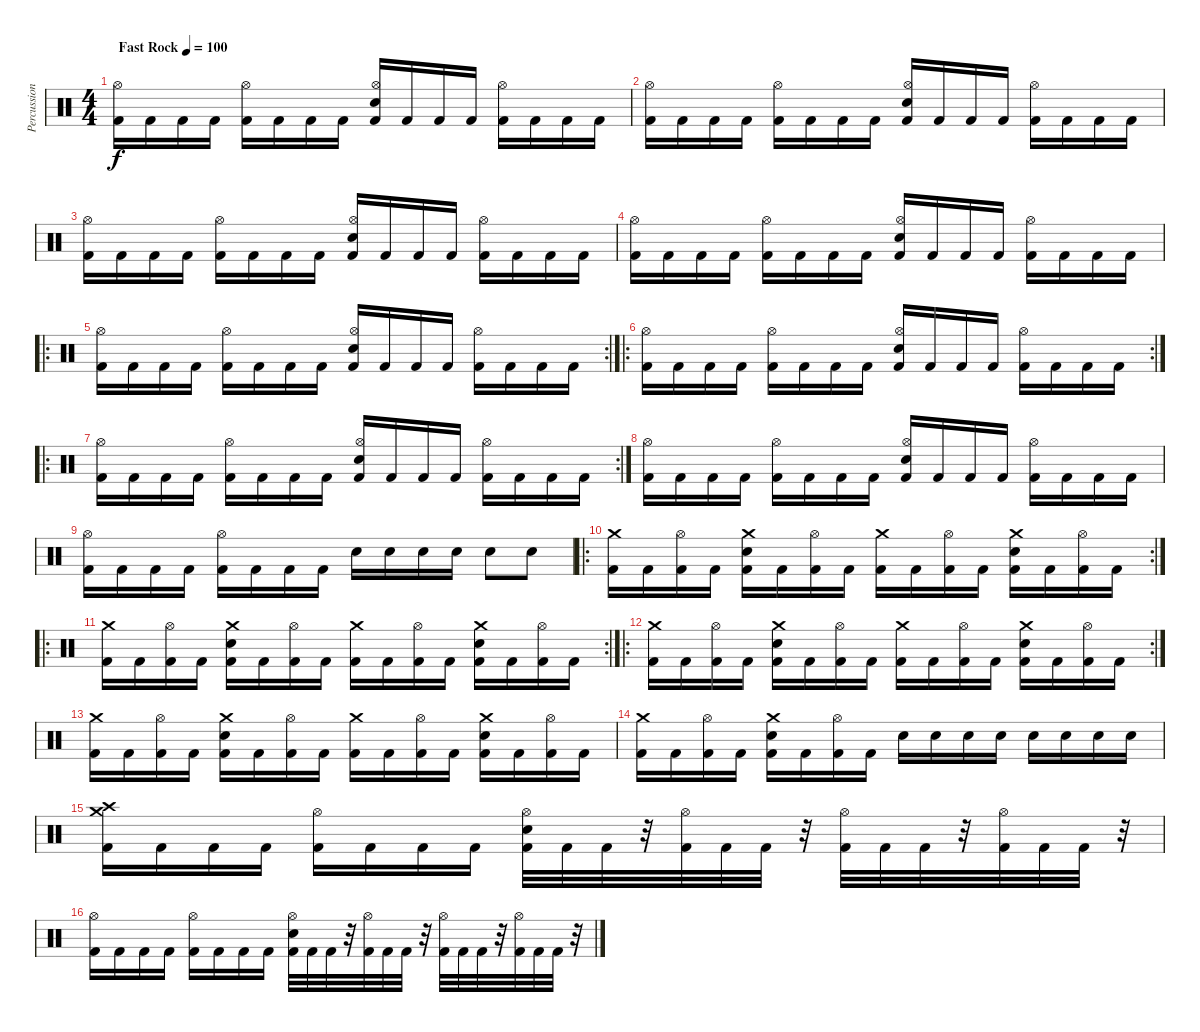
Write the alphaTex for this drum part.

\track ("Percussion" "Percussion") {solo instrument percussion}
\staff {score}
\articulation defaults
\ts (4 4)
\tempo (100 "Fast Rock")
\clef neutral
\ks c
("Kick (hit) 2" "Hi-Hat (open)").16{dy f} "Kick (hit) 2".16 "Kick (hit) 2".16 "Kick (hit) 2".16 ("Kick (hit) 2" "Hi-Hat (open)").16 "Kick (hit) 2".16 "Kick (hit) 2".16 "Kick (hit) 2".16 ("Kick (hit) 2" "Hi-Hat (open)" "Snare (hit) 2").16 "Kick (hit) 2".16 "Kick (hit) 2".16 "Kick (hit) 2".16 ("Kick (hit) 2" "Hi-Hat (open)").16 "Kick (hit) 2".16 "Kick (hit) 2".16 "Kick (hit) 2".16 |
("Kick (hit) 2" "Hi-Hat (open)").16 "Kick (hit) 2".16 "Kick (hit) 2".16 "Kick (hit) 2".16 ("Kick (hit) 2" "Hi-Hat (open)").16 "Kick (hit) 2".16 "Kick (hit) 2".16 "Kick (hit) 2".16 ("Kick (hit) 2" "Hi-Hat (open)" "Snare (hit) 2").16 "Kick (hit) 2".16 "Kick (hit) 2".16 "Kick (hit) 2".16 ("Kick (hit) 2" "Hi-Hat (open)").16 "Kick (hit) 2".16 "Kick (hit) 2".16 "Kick (hit) 2".16 |
("Kick (hit) 2" "Hi-Hat (open)").16 "Kick (hit) 2".16 "Kick (hit) 2".16 "Kick (hit) 2".16 ("Kick (hit) 2" "Hi-Hat (open)").16 "Kick (hit) 2".16 "Kick (hit) 2".16 "Kick (hit) 2".16 ("Kick (hit) 2" "Hi-Hat (open)" "Snare (hit) 2").16 "Kick (hit) 2".16 "Kick (hit) 2".16 "Kick (hit) 2".16 ("Kick (hit) 2" "Hi-Hat (open)").16 "Kick (hit) 2".16 "Kick (hit) 2".16 "Kick (hit) 2".16 |
("Kick (hit) 2" "Hi-Hat (open)").16 "Kick (hit) 2".16 "Kick (hit) 2".16 "Kick (hit) 2".16 ("Kick (hit) 2" "Hi-Hat (open)").16 "Kick (hit) 2".16 "Kick (hit) 2".16 "Kick (hit) 2".16 ("Kick (hit) 2" "Hi-Hat (open)" "Snare (hit) 2").16 "Kick (hit) 2".16 "Kick (hit) 2".16 "Kick (hit) 2".16 ("Kick (hit) 2" "Hi-Hat (open)").16 "Kick (hit) 2".16 "Kick (hit) 2".16 "Kick (hit) 2".16 |
\ro
\rc 2
("Kick (hit) 2" "Hi-Hat (open)").16 "Kick (hit) 2".16 "Kick (hit) 2".16 "Kick (hit) 2".16 ("Kick (hit) 2" "Hi-Hat (open)").16 "Kick (hit) 2".16 "Kick (hit) 2".16 "Kick (hit) 2".16 ("Kick (hit) 2" "Hi-Hat (open)" "Snare (hit) 2").16 "Kick (hit) 2".16 "Kick (hit) 2".16 "Kick (hit) 2".16 ("Kick (hit) 2" "Hi-Hat (open)").16 "Kick (hit) 2".16 "Kick (hit) 2".16 "Kick (hit) 2".16 |
\ro
\rc 2
("Kick (hit) 2" "Hi-Hat (open)").16 "Kick (hit) 2".16 "Kick (hit) 2".16 "Kick (hit) 2".16 ("Kick (hit) 2" "Hi-Hat (open)").16 "Kick (hit) 2".16 "Kick (hit) 2".16 "Kick (hit) 2".16 ("Kick (hit) 2" "Hi-Hat (open)" "Snare (hit) 2").16 "Kick (hit) 2".16 "Kick (hit) 2".16 "Kick (hit) 2".16 ("Kick (hit) 2" "Hi-Hat (open)").16 "Kick (hit) 2".16 "Kick (hit) 2".16 "Kick (hit) 2".16 |
\ro
\rc 2
("Kick (hit) 2" "Hi-Hat (open)").16 "Kick (hit) 2".16 "Kick (hit) 2".16 "Kick (hit) 2".16 ("Kick (hit) 2" "Hi-Hat (open)").16 "Kick (hit) 2".16 "Kick (hit) 2".16 "Kick (hit) 2".16 ("Kick (hit) 2" "Hi-Hat (open)" "Snare (hit) 2").16 "Kick (hit) 2".16 "Kick (hit) 2".16 "Kick (hit) 2".16 ("Kick (hit) 2" "Hi-Hat (open)").16 "Kick (hit) 2".16 "Kick (hit) 2".16 "Kick (hit) 2".16 |
("Kick (hit) 2" "Hi-Hat (open)").16 "Kick (hit) 2".16 "Kick (hit) 2".16 "Kick (hit) 2".16 ("Kick (hit) 2" "Hi-Hat (open)").16 "Kick (hit) 2".16 "Kick (hit) 2".16 "Kick (hit) 2".16 ("Kick (hit) 2" "Hi-Hat (open)" "Snare (hit) 2").16 "Kick (hit) 2".16 "Kick (hit) 2".16 "Kick (hit) 2".16 ("Kick (hit) 2" "Hi-Hat (open)").16 "Kick (hit) 2".16 "Kick (hit) 2".16 "Kick (hit) 2".16 |
("Kick (hit) 2" "Hi-Hat (open)").16 "Kick (hit) 2".16 "Kick (hit) 2".16 "Kick (hit) 2".16 ("Kick (hit) 2" "Hi-Hat (open)").16 "Kick (hit) 2".16 "Kick (hit) 2".16 "Kick (hit) 2".16 "Snare (hit) 2".16 "Snare (hit) 2".16 "Snare (hit) 2".16 "Snare (hit) 2".16 "Snare (hit) 2".8 "Snare (hit) 2".8 |
\ro
\rc 2
("Kick (hit) 2" "Crash medium (hit)").16 "Kick (hit) 2".16 ("Kick (hit) 2" "Hi-Hat (open)").16 "Kick (hit) 2".16 ("Kick (hit) 2" "Crash medium (hit)" "Snare (hit) 2").16 "Kick (hit) 2".16 ("Kick (hit) 2" "Hi-Hat (open)").16 "Kick (hit) 2".16 ("Kick (hit) 2" "Crash medium (hit)").16 "Kick (hit) 2".16 ("Kick (hit) 2" "Hi-Hat (open)").16 "Kick (hit) 2".16 ("Kick (hit) 2" "Crash medium (hit)" "Snare (hit) 2").16 "Kick (hit) 2".16 ("Kick (hit) 2" "Hi-Hat (open)").16 "Kick (hit) 2".16 |
\ro
\rc 2
("Kick (hit) 2" "Crash medium (hit)").16 "Kick (hit) 2".16 ("Kick (hit) 2" "Hi-Hat (open)").16 "Kick (hit) 2".16 ("Kick (hit) 2" "Crash medium (hit)" "Snare (hit) 2").16 "Kick (hit) 2".16 ("Kick (hit) 2" "Hi-Hat (open)").16 "Kick (hit) 2".16 ("Kick (hit) 2" "Crash medium (hit)").16 "Kick (hit) 2".16 ("Kick (hit) 2" "Hi-Hat (open)").16 "Kick (hit) 2".16 ("Kick (hit) 2" "Crash medium (hit)" "Snare (hit) 2").16 "Kick (hit) 2".16 ("Kick (hit) 2" "Hi-Hat (open)").16 "Kick (hit) 2".16 |
\ro
\rc 2
("Kick (hit) 2" "Crash medium (hit)").16 "Kick (hit) 2".16 ("Kick (hit) 2" "Hi-Hat (open)").16 "Kick (hit) 2".16 ("Kick (hit) 2" "Crash medium (hit)" "Snare (hit) 2").16 "Kick (hit) 2".16 ("Kick (hit) 2" "Hi-Hat (open)").16 "Kick (hit) 2".16 ("Kick (hit) 2" "Crash medium (hit)").16 "Kick (hit) 2".16 ("Kick (hit) 2" "Hi-Hat (open)").16 "Kick (hit) 2".16 ("Kick (hit) 2" "Crash medium (hit)" "Snare (hit) 2").16 "Kick (hit) 2".16 ("Kick (hit) 2" "Hi-Hat (open)").16 "Kick (hit) 2".16 |
("Kick (hit) 2" "Crash medium (hit)").16 "Kick (hit) 2".16 ("Kick (hit) 2" "Hi-Hat (open)").16 "Kick (hit) 2".16 ("Kick (hit) 2" "Crash medium (hit)" "Snare (hit) 2").16 "Kick (hit) 2".16 ("Kick (hit) 2" "Hi-Hat (open)").16 "Kick (hit) 2".16 ("Kick (hit) 2" "Crash medium (hit)").16 "Kick (hit) 2".16 ("Kick (hit) 2" "Hi-Hat (open)").16 "Kick (hit) 2".16 ("Kick (hit) 2" "Crash medium (hit)" "Snare (hit) 2").16 "Kick (hit) 2".16 ("Kick (hit) 2" "Hi-Hat (open)").16 "Kick (hit) 2".16 |
("Kick (hit) 2" "Crash medium (hit)").16 "Kick (hit) 2".16 ("Kick (hit) 2" "Hi-Hat (open)").16 "Kick (hit) 2".16 ("Kick (hit) 2" "Crash medium (hit)" "Snare (hit) 2").16 "Kick (hit) 2".16 ("Kick (hit) 2" "Hi-Hat (open)").16 "Kick (hit) 2".16 "Snare (hit) 2".16 "Snare (hit) 2".16 "Snare (hit) 2".16 "Snare (hit) 2".16 "Snare (hit) 2".16 "Snare (hit) 2".16 "Snare (hit) 2".16 "Snare (hit) 2".16 |
("Kick (hit) 2" "Crash medium (hit)" "Crash high (hit)").16 "Kick (hit) 2".16 "Kick (hit) 2".16 "Kick (hit) 2".16 ("Kick (hit) 2" "Hi-Hat (open)").16 "Kick (hit) 2".16 "Kick (hit) 2".16 "Kick (hit) 2".16 ("Kick (hit) 2" "Hi-Hat (open)" "Snare (hit) 2").32 "Kick (hit) 2".32 "Kick (hit) 2".32 r.32 ("Kick (hit) 2" "Hi-Hat (open)").32 "Kick (hit) 2".32 "Kick (hit) 2".32 r.32 ("Kick (hit) 2" "Hi-Hat (open)").32 "Kick (hit) 2".32 "Kick (hit) 2".32 r.32 ("Kick (hit) 2" "Hi-Hat (open)").32 "Kick (hit) 2".32 "Kick (hit) 2".32 r.32 |
("Kick (hit) 2" "Hi-Hat (open)").16 "Kick (hit) 2".16 "Kick (hit) 2".16 "Kick (hit) 2".16 ("Kick (hit) 2" "Hi-Hat (open)").16 "Kick (hit) 2".16 "Kick (hit) 2".16 "Kick (hit) 2".16 ("Kick (hit) 2" "Hi-Hat (open)" "Snare (hit) 2").32 "Kick (hit) 2".32 "Kick (hit) 2".32 r.32 ("Kick (hit) 2" "Hi-Hat (open)").32 "Kick (hit) 2".32 "Kick (hit) 2".32 r.32 ("Kick (hit) 2" "Hi-Hat (open)").32 "Kick (hit) 2".32 "Kick (hit) 2".32 r.32 ("Kick (hit) 2" "Hi-Hat (open)").32 "Kick (hit) 2".32 "Kick (hit) 2".32 r.32
